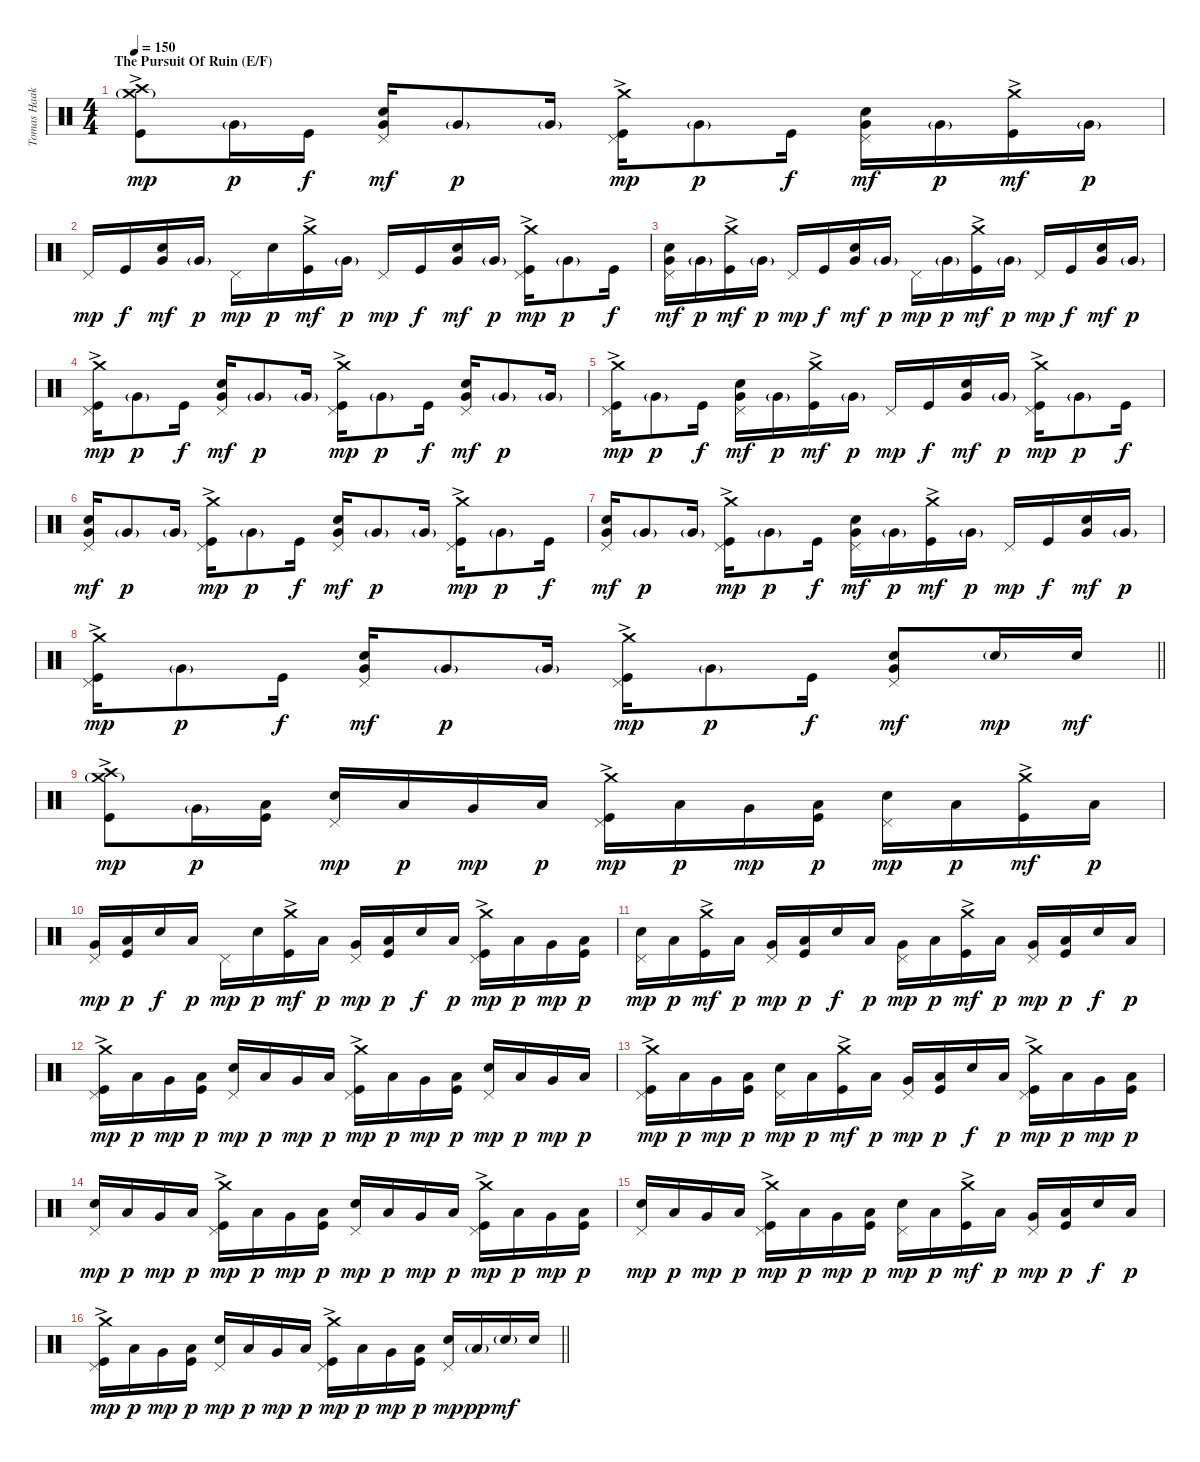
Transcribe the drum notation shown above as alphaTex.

\track ("Tomas Haake (Drums)" "Tomas Haak") {instrument percussion}
\staff {score}
\articulation defaults
\ts (4 4)
\section ("" "The Pursuit Of Ruin (E/F)")
\tempo 150
\clef neutral
\ks c
("Crash high (hit)"{ac} "Crash medium (hit)"{g} "Kick (hit)").8{dy mp} "Very Low Tom (hit)"{g}.16{dy p} "Kick (hit)".16{dy f} ("Pedal Hi-Hat (hit)" "Very Low Tom (hit)" "Electric Snare (hit)").16{dy mf} "Very Low Tom (hit)"{g}.8{dy p} "Very Low Tom (hit)"{g}.16 ("Crash medium (hit)"{ac} "Pedal Hi-Hat (hit)" "Kick (hit)").16{dy mp} "Very Low Tom (hit)"{g}.8{dy p} "Kick (hit)".16{dy f} ("Pedal Hi-Hat (hit)" "Very Low Tom (hit)" "Electric Snare (hit)").16{dy mf} "Very Low Tom (hit)"{g}.16{dy p} ("Crash medium (hit)"{ac} "Kick (hit)").16{dy mf} "Very Low Tom (hit)"{g}.16{dy p} |
"Pedal Hi-Hat (hit)".16{dy mp} "Kick (hit)".16{dy f} ("Very Low Tom (hit)" "Electric Snare (hit)").16{dy mf} "Very Low Tom (hit)"{g}.16{dy p} "Pedal Hi-Hat (hit)".16{dy mp} "Electric Snare (hit)".16{dy p} ("Crash medium (hit)"{ac} "Kick (hit)").16{dy mf} "Very Low Tom (hit)"{g}.16{dy p} "Pedal Hi-Hat (hit)".16{dy mp} "Kick (hit)".16{dy f} ("Very Low Tom (hit)" "Electric Snare (hit)").16{dy mf} "Very Low Tom (hit)"{g}.16{dy p} ("Crash medium (hit)"{ac} "Pedal Hi-Hat (hit)" "Kick (hit)").16{dy mp} "Very Low Tom (hit)"{g}.8{dy p} "Kick (hit)".16{dy f} |
("Pedal Hi-Hat (hit)" "Very Low Tom (hit)" "Electric Snare (hit)").16{dy mf} "Very Low Tom (hit)"{g}.16{dy p} ("Crash medium (hit)"{ac} "Kick (hit)").16{dy mf} "Very Low Tom (hit)"{g}.16{dy p} "Pedal Hi-Hat (hit)".16{dy mp} "Kick (hit)".16{dy f} ("Very Low Tom (hit)" "Electric Snare (hit)").16{dy mf} "Very Low Tom (hit)"{g}.16{dy p} "Pedal Hi-Hat (hit)".16{dy mp} "Very Low Tom (hit)"{g}.16{dy p} ("Crash medium (hit)"{ac} "Kick (hit)").16{dy mf} "Very Low Tom (hit)"{g}.16{dy p} "Pedal Hi-Hat (hit)".16{dy mp} "Kick (hit)".16{dy f} ("Very Low Tom (hit)" "Electric Snare (hit)").16{dy mf} "Very Low Tom (hit)"{g}.16{dy p} |
("Crash medium (hit)"{ac} "Pedal Hi-Hat (hit)" "Kick (hit)").16{dy mp} "Very Low Tom (hit)"{g}.8{dy p} "Kick (hit)".16{dy f} ("Pedal Hi-Hat (hit)" "Very Low Tom (hit)" "Electric Snare (hit)").16{dy mf} "Very Low Tom (hit)"{g}.8{dy p} "Very Low Tom (hit)"{g}.16 ("Crash medium (hit)"{ac} "Pedal Hi-Hat (hit)" "Kick (hit)").16{dy mp} "Very Low Tom (hit)"{g}.8{dy p} "Kick (hit)".16{dy f} ("Pedal Hi-Hat (hit)" "Very Low Tom (hit)" "Electric Snare (hit)").16{dy mf} "Very Low Tom (hit)"{g}.8{dy p} "Very Low Tom (hit)"{g}.16 |
("Crash medium (hit)"{ac} "Pedal Hi-Hat (hit)" "Kick (hit)").16{dy mp} "Very Low Tom (hit)"{g}.8{dy p} "Kick (hit)".16{dy f} ("Pedal Hi-Hat (hit)" "Very Low Tom (hit)" "Electric Snare (hit)").16{dy mf} "Very Low Tom (hit)"{g}.16{dy p} ("Crash medium (hit)"{ac} "Kick (hit)").16{dy mf} "Very Low Tom (hit)"{g}.16{dy p} "Pedal Hi-Hat (hit)".16{dy mp} "Kick (hit)".16{dy f} ("Very Low Tom (hit)" "Electric Snare (hit)").16{dy mf} "Very Low Tom (hit)"{g}.16{dy p} ("Crash medium (hit)"{ac} "Pedal Hi-Hat (hit)" "Kick (hit)").16{dy mp} "Very Low Tom (hit)"{g}.8{dy p} "Kick (hit)".16{dy f} |
("Pedal Hi-Hat (hit)" "Very Low Tom (hit)" "Electric Snare (hit)").16{dy mf} "Very Low Tom (hit)"{g}.8{dy p} "Very Low Tom (hit)"{g}.16 ("Crash medium (hit)"{ac} "Pedal Hi-Hat (hit)" "Kick (hit)").16{dy mp} "Very Low Tom (hit)"{g}.8{dy p} "Kick (hit)".16{dy f} ("Pedal Hi-Hat (hit)" "Very Low Tom (hit)" "Electric Snare (hit)").16{dy mf} "Very Low Tom (hit)"{g}.8{dy p} "Very Low Tom (hit)"{g}.16 ("Crash medium (hit)"{ac} "Pedal Hi-Hat (hit)" "Kick (hit)").16{dy mp} "Very Low Tom (hit)"{g}.8{dy p} "Kick (hit)".16{dy f} |
("Pedal Hi-Hat (hit)" "Very Low Tom (hit)" "Electric Snare (hit)").16{dy mf} "Very Low Tom (hit)"{g}.8{dy p} "Very Low Tom (hit)"{g}.16 ("Crash medium (hit)"{ac} "Pedal Hi-Hat (hit)" "Kick (hit)").16{dy mp} "Very Low Tom (hit)"{g}.8{dy p} "Kick (hit)".16{dy f} ("Pedal Hi-Hat (hit)" "Very Low Tom (hit)" "Electric Snare (hit)").16{dy mf} "Very Low Tom (hit)"{g}.16{dy p} ("Crash medium (hit)"{ac} "Kick (hit)").16{dy mf} "Very Low Tom (hit)"{g}.16{dy p} "Pedal Hi-Hat (hit)".16{dy mp} "Kick (hit)".16{dy f} ("Very Low Tom (hit)" "Electric Snare (hit)").16{dy mf} "Very Low Tom (hit)"{g}.16{dy p} |
\barLineRight lightlight
("Crash medium (hit)"{ac} "Pedal Hi-Hat (hit)" "Kick (hit)").16{dy mp} "Very Low Tom (hit)"{g}.8{dy p} "Kick (hit)".16{dy f} ("Pedal Hi-Hat (hit)" "Very Low Tom (hit)" "Electric Snare (hit)").16{dy mf} "Very Low Tom (hit)"{g}.8{dy p} "Very Low Tom (hit)"{g}.16 ("Crash medium (hit)"{ac} "Pedal Hi-Hat (hit)" "Kick (hit)").16{dy mp} "Very Low Tom (hit)"{g}.8{dy p} "Kick (hit)".16{dy f} ("Pedal Hi-Hat (hit)" "Very Low Tom (hit)" "Electric Snare (hit)").8{dy mf} "Electric Snare (hit)"{g}.16{dy mp} "Electric Snare (hit)".16{dy mf} |
("Crash high (hit)"{ac} "Crash medium (hit)"{g} "Kick (hit)").8{dy mp} "Very Low Tom (hit)"{g}.16{dy p} ("Low Tom (hit)" "Kick (hit)").16 ("Pedal Hi-Hat (hit)" "Electric Snare (hit)").16{dy mp} "Low Tom (hit)".16{dy p} "Very Low Tom (hit)".16{dy mp} "Low Tom (hit)".16{dy p} ("Crash medium (hit)"{ac} "Pedal Hi-Hat (hit)" "Kick (hit)").16{dy mp} "Low Tom (hit)".16{dy p} "Very Low Tom (hit)".16{dy mp} ("Low Tom (hit)" "Kick (hit)").16{dy p} ("Pedal Hi-Hat (hit)" "Electric Snare (hit)").16{dy mp} "Low Tom (hit)".16{dy p} ("Crash medium (hit)"{ac} "Kick (hit)").16{dy mf} "Low Tom (hit)".16{dy p} |
("Pedal Hi-Hat (hit)" "Very Low Tom (hit)").16{dy mp} ("Low Tom (hit)" "Kick (hit)").16{dy p} "Electric Snare (hit)".16{dy f} "Low Tom (hit)".16{dy p} "Pedal Hi-Hat (hit)".16{dy mp} "Electric Snare (hit)".16{dy p} ("Crash medium (hit)"{ac} "Kick (hit)").16{dy mf} "Low Tom (hit)".16{dy p} ("Pedal Hi-Hat (hit)" "Very Low Tom (hit)").16{dy mp} ("Low Tom (hit)" "Kick (hit)").16{dy p} "Electric Snare (hit)".16{dy f} "Low Tom (hit)".16{dy p} ("Crash medium (hit)"{ac} "Pedal Hi-Hat (hit)" "Kick (hit)").16{dy mp} "Low Tom (hit)".16{dy p} "Very Low Tom (hit)".16{dy mp} ("Low Tom (hit)" "Kick (hit)").16{dy p} |
("Pedal Hi-Hat (hit)" "Electric Snare (hit)").16{dy mp} "Low Tom (hit)".16{dy p} ("Crash medium (hit)"{ac} "Kick (hit)").16{dy mf} "Low Tom (hit)".16{dy p} ("Pedal Hi-Hat (hit)" "Very Low Tom (hit)").16{dy mp} ("Low Tom (hit)" "Kick (hit)").16{dy p} "Electric Snare (hit)".16{dy f} "Low Tom (hit)".16{dy p} ("Pedal Hi-Hat (hit)" "Very Low Tom (hit)").16{dy mp} "Low Tom (hit)".16{dy p} ("Crash medium (hit)"{ac} "Kick (hit)").16{dy mf} "Low Tom (hit)".16{dy p} ("Pedal Hi-Hat (hit)" "Very Low Tom (hit)").16{dy mp} ("Low Tom (hit)" "Kick (hit)").16{dy p} "Electric Snare (hit)".16{dy f} "Low Tom (hit)".16{dy p} |
("Crash medium (hit)"{ac} "Pedal Hi-Hat (hit)" "Kick (hit)").16{dy mp} "Low Tom (hit)".16{dy p} "Very Low Tom (hit)".16{dy mp} ("Low Tom (hit)" "Kick (hit)").16{dy p} ("Pedal Hi-Hat (hit)" "Electric Snare (hit)").16{dy mp} "Low Tom (hit)".16{dy p} "Very Low Tom (hit)".16{dy mp} "Low Tom (hit)".16{dy p} ("Crash medium (hit)"{ac} "Pedal Hi-Hat (hit)" "Kick (hit)").16{dy mp} "Low Tom (hit)".16{dy p} "Very Low Tom (hit)".16{dy mp} ("Low Tom (hit)" "Kick (hit)").16{dy p} ("Pedal Hi-Hat (hit)" "Electric Snare (hit)").16{dy mp} "Low Tom (hit)".16{dy p} "Very Low Tom (hit)".16{dy mp} "Low Tom (hit)".16{dy p} |
("Crash medium (hit)"{ac} "Pedal Hi-Hat (hit)" "Kick (hit)").16{dy mp} "Low Tom (hit)".16{dy p} "Very Low Tom (hit)".16{dy mp} ("Low Tom (hit)" "Kick (hit)").16{dy p} ("Pedal Hi-Hat (hit)" "Electric Snare (hit)").16{dy mp} "Low Tom (hit)".16{dy p} ("Crash medium (hit)"{ac} "Kick (hit)").16{dy mf} "Low Tom (hit)".16{dy p} ("Pedal Hi-Hat (hit)" "Very Low Tom (hit)").16{dy mp} ("Low Tom (hit)" "Kick (hit)").16{dy p} "Electric Snare (hit)".16{dy f} "Low Tom (hit)".16{dy p} ("Crash medium (hit)"{ac} "Pedal Hi-Hat (hit)" "Kick (hit)").16{dy mp} "Low Tom (hit)".16{dy p} "Very Low Tom (hit)".16{dy mp} ("Low Tom (hit)" "Kick (hit)").16{dy p} |
("Pedal Hi-Hat (hit)" "Electric Snare (hit)").16{dy mp} "Low Tom (hit)".16{dy p} "Very Low Tom (hit)".16{dy mp} "Low Tom (hit)".16{dy p} ("Crash medium (hit)"{ac} "Pedal Hi-Hat (hit)" "Kick (hit)").16{dy mp} "Low Tom (hit)".16{dy p} "Very Low Tom (hit)".16{dy mp} ("Low Tom (hit)" "Kick (hit)").16{dy p} ("Pedal Hi-Hat (hit)" "Electric Snare (hit)").16{dy mp} "Low Tom (hit)".16{dy p} "Very Low Tom (hit)".16{dy mp} "Low Tom (hit)".16{dy p} ("Crash medium (hit)"{ac} "Pedal Hi-Hat (hit)" "Kick (hit)").16{dy mp} "Low Tom (hit)".16{dy p} "Very Low Tom (hit)".16{dy mp} ("Low Tom (hit)" "Kick (hit)").16{dy p} |
("Pedal Hi-Hat (hit)" "Electric Snare (hit)").16{dy mp} "Low Tom (hit)".16{dy p} "Very Low Tom (hit)".16{dy mp} "Low Tom (hit)".16{dy p} ("Crash medium (hit)"{ac} "Pedal Hi-Hat (hit)" "Kick (hit)").16{dy mp} "Low Tom (hit)".16{dy p} "Very Low Tom (hit)".16{dy mp} ("Low Tom (hit)" "Kick (hit)").16{dy p} ("Pedal Hi-Hat (hit)" "Electric Snare (hit)").16{dy mp} "Low Tom (hit)".16{dy p} ("Crash medium (hit)"{ac} "Kick (hit)").16{dy mf} "Low Tom (hit)".16{dy p} ("Pedal Hi-Hat (hit)" "Very Low Tom (hit)").16{dy mp} ("Low Tom (hit)" "Kick (hit)").16{dy p} "Electric Snare (hit)".16{dy f} "Low Tom (hit)".16{dy p} |
\barLineRight lightlight
("Crash medium (hit)"{ac} "Pedal Hi-Hat (hit)" "Kick (hit)").16{dy mp} "Low Tom (hit)".16{dy p} "Very Low Tom (hit)".16{dy mp} ("Low Tom (hit)" "Kick (hit)").16{dy p} ("Pedal Hi-Hat (hit)" "Electric Snare (hit)").16{dy mp} "Low Tom (hit)".16{dy p} "Very Low Tom (hit)".16{dy mp} "Low Tom (hit)".16{dy p} ("Crash medium (hit)"{ac} "Pedal Hi-Hat (hit)" "Kick (hit)").16{dy mp} "Low Tom (hit)".16{dy p} "Very Low Tom (hit)".16{dy mp} ("Low Tom (hit)" "Kick (hit)").16{dy p} ("Pedal Hi-Hat (hit)" "Electric Snare (hit)").16{dy mp} "Low Tom (hit)"{g}.16{dy pp} "Electric Snare (hit)"{g}.16{dy mf} "Electric Snare (hit)".16
